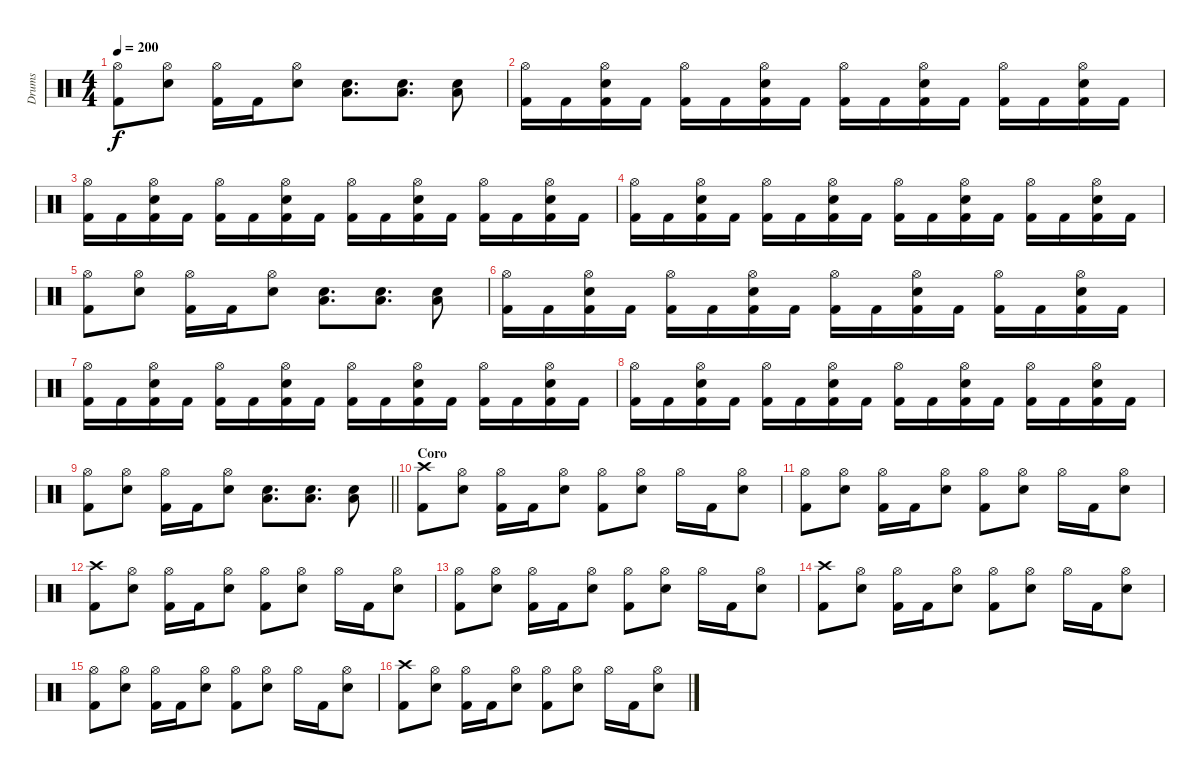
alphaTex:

\track ("Drums" "Drums") {instrument percussion}
\staff {score}
\articulation defaults
\ts (4 4)
\tempo 200
\clef neutral
\ks c
("Hi-Hat (open)" "Kick (hit) 2").8{dy f} ("Hi-Hat (open)" "Electric Snare (hit)").8 ("Hi-Hat (open)" "Kick (hit) 2").16 "Kick (hit) 2".16 ("Hi-Hat (open)" "Electric Snare (hit)").8 ("Low Tom (hit)" "Electric Snare (hit)").8{d} ("Low Tom (hit)" "Electric Snare (hit)").8{d} ("Low Tom (hit)" "Electric Snare (hit)").8 |
("Hi-Hat (open)" "Kick (hit) 2").16 "Kick (hit) 2".16 ("Hi-Hat (open)" "Electric Snare (hit)" "Kick (hit) 2").16 "Kick (hit) 2".16 ("Hi-Hat (open)" "Kick (hit) 2").16 "Kick (hit) 2".16 ("Hi-Hat (open)" "Electric Snare (hit)" "Kick (hit) 2").16 "Kick (hit) 2".16 ("Hi-Hat (open)" "Kick (hit) 2").16 "Kick (hit) 2".16 ("Hi-Hat (open)" "Electric Snare (hit)" "Kick (hit) 2").16 "Kick (hit) 2".16 ("Hi-Hat (open)" "Kick (hit) 2").16 "Kick (hit) 2".16 ("Hi-Hat (open)" "Electric Snare (hit)" "Kick (hit) 2").16 "Kick (hit) 2".16 |
("Hi-Hat (open)" "Kick (hit) 2").16 "Kick (hit) 2".16 ("Hi-Hat (open)" "Electric Snare (hit)" "Kick (hit) 2").16 "Kick (hit) 2".16 ("Hi-Hat (open)" "Kick (hit) 2").16 "Kick (hit) 2".16 ("Hi-Hat (open)" "Electric Snare (hit)" "Kick (hit) 2").16 "Kick (hit) 2".16 ("Hi-Hat (open)" "Kick (hit) 2").16 "Kick (hit) 2".16 ("Hi-Hat (open)" "Electric Snare (hit)" "Kick (hit) 2").16 "Kick (hit) 2".16 ("Hi-Hat (open)" "Kick (hit) 2").16 "Kick (hit) 2".16 ("Hi-Hat (open)" "Electric Snare (hit)" "Kick (hit) 2").16 "Kick (hit) 2".16 |
("Hi-Hat (open)" "Kick (hit) 2").16 "Kick (hit) 2".16 ("Hi-Hat (open)" "Electric Snare (hit)" "Kick (hit) 2").16 "Kick (hit) 2".16 ("Hi-Hat (open)" "Kick (hit) 2").16 "Kick (hit) 2".16 ("Hi-Hat (open)" "Electric Snare (hit)" "Kick (hit) 2").16 "Kick (hit) 2".16 ("Hi-Hat (open)" "Kick (hit) 2").16 "Kick (hit) 2".16 ("Hi-Hat (open)" "Electric Snare (hit)" "Kick (hit) 2").16 "Kick (hit) 2".16 ("Hi-Hat (open)" "Kick (hit) 2").16 "Kick (hit) 2".16 ("Hi-Hat (open)" "Electric Snare (hit)" "Kick (hit) 2").16 "Kick (hit) 2".16 |
("Hi-Hat (open)" "Kick (hit) 2").8 ("Hi-Hat (open)" "Electric Snare (hit)").8 ("Hi-Hat (open)" "Kick (hit) 2").16 "Kick (hit) 2".16 ("Hi-Hat (open)" "Electric Snare (hit)").8 ("Low Tom (hit)" "Electric Snare (hit)").8{d} ("Low Tom (hit)" "Electric Snare (hit)").8{d} ("Low Tom (hit)" "Electric Snare (hit)").8 |
("Hi-Hat (open)" "Kick (hit) 2").16 "Kick (hit) 2".16 ("Hi-Hat (open)" "Electric Snare (hit)" "Kick (hit) 2").16 "Kick (hit) 2".16 ("Hi-Hat (open)" "Kick (hit) 2").16 "Kick (hit) 2".16 ("Hi-Hat (open)" "Electric Snare (hit)" "Kick (hit) 2").16 "Kick (hit) 2".16 ("Hi-Hat (open)" "Kick (hit) 2").16 "Kick (hit) 2".16 ("Hi-Hat (open)" "Electric Snare (hit)" "Kick (hit) 2").16 "Kick (hit) 2".16 ("Hi-Hat (open)" "Kick (hit) 2").16 "Kick (hit) 2".16 ("Hi-Hat (open)" "Electric Snare (hit)" "Kick (hit) 2").16 "Kick (hit) 2".16 |
("Hi-Hat (open)" "Kick (hit) 2").16 "Kick (hit) 2".16 ("Hi-Hat (open)" "Electric Snare (hit)" "Kick (hit) 2").16 "Kick (hit) 2".16 ("Hi-Hat (open)" "Kick (hit) 2").16 "Kick (hit) 2".16 ("Hi-Hat (open)" "Electric Snare (hit)" "Kick (hit) 2").16 "Kick (hit) 2".16 ("Hi-Hat (open)" "Kick (hit) 2").16 "Kick (hit) 2".16 ("Hi-Hat (open)" "Electric Snare (hit)" "Kick (hit) 2").16 "Kick (hit) 2".16 ("Hi-Hat (open)" "Kick (hit) 2").16 "Kick (hit) 2".16 ("Hi-Hat (open)" "Electric Snare (hit)" "Kick (hit) 2").16 "Kick (hit) 2".16 |
("Hi-Hat (open)" "Kick (hit) 2").16 "Kick (hit) 2".16 ("Hi-Hat (open)" "Electric Snare (hit)" "Kick (hit) 2").16 "Kick (hit) 2".16 ("Hi-Hat (open)" "Kick (hit) 2").16 "Kick (hit) 2".16 ("Hi-Hat (open)" "Electric Snare (hit)" "Kick (hit) 2").16 "Kick (hit) 2".16 ("Hi-Hat (open)" "Kick (hit) 2").16 "Kick (hit) 2".16 ("Hi-Hat (open)" "Electric Snare (hit)" "Kick (hit) 2").16 "Kick (hit) 2".16 ("Hi-Hat (open)" "Kick (hit) 2").16 "Kick (hit) 2".16 ("Hi-Hat (open)" "Electric Snare (hit)" "Kick (hit) 2").16 "Kick (hit) 2".16 |
\barLineRight lightlight
("Hi-Hat (open)" "Kick (hit) 2").8 ("Hi-Hat (open)" "Electric Snare (hit)").8 ("Hi-Hat (open)" "Kick (hit) 2").16 "Kick (hit) 2".16 ("Hi-Hat (open)" "Electric Snare (hit)").8 ("Low Tom (hit)" "Electric Snare (hit)").8{d} ("Low Tom (hit)" "Electric Snare (hit)").8{d} ("Low Tom (hit)" "Electric Snare (hit)").8 |
\section ("" "Coro")
("Crash high (hit)" "Kick (hit) 2").8 ("Hi-Hat (open)" "Electric Snare (hit)").8 ("Hi-Hat (open)" "Kick (hit) 2").16 "Kick (hit) 2".16 ("Hi-Hat (open)" "Electric Snare (hit)").8 ("Hi-Hat (open)" "Kick (hit) 2").8 ("Hi-Hat (open)" "Electric Snare (hit)").8 "Hi-Hat (open)".16 "Kick (hit) 2".16 ("Hi-Hat (open)" "Electric Snare (hit)").8 |
("Hi-Hat (open)" "Kick (hit) 2").8 ("Hi-Hat (open)" "Electric Snare (hit)").8 ("Hi-Hat (open)" "Kick (hit) 2").16 "Kick (hit) 2".16 ("Hi-Hat (open)" "Electric Snare (hit)").8 ("Hi-Hat (open)" "Kick (hit) 2").8 ("Hi-Hat (open)" "Electric Snare (hit)").8 "Hi-Hat (open)".16 "Kick (hit) 2".16 ("Hi-Hat (open)" "Electric Snare (hit)").8 |
("Crash high (hit)" "Kick (hit) 2").8 ("Hi-Hat (open)" "Electric Snare (hit)").8 ("Hi-Hat (open)" "Kick (hit) 2").16 "Kick (hit) 2".16 ("Hi-Hat (open)" "Electric Snare (hit)").8 ("Hi-Hat (open)" "Kick (hit) 2").8 ("Hi-Hat (open)" "Electric Snare (hit)").8 "Hi-Hat (open)".16 "Kick (hit) 2".16 ("Hi-Hat (open)" "Electric Snare (hit)").8 |
("Hi-Hat (open)" "Kick (hit) 2").8 ("Hi-Hat (open)" "Electric Snare (hit)").8 ("Hi-Hat (open)" "Kick (hit) 2").16 "Kick (hit) 2".16 ("Hi-Hat (open)" "Electric Snare (hit)").8 ("Hi-Hat (open)" "Kick (hit) 2").8 ("Hi-Hat (open)" "Electric Snare (hit)").8 "Hi-Hat (open)".16 "Kick (hit) 2".16 ("Hi-Hat (open)" "Electric Snare (hit)").8 |
("Crash high (hit)" "Kick (hit) 2").8 ("Hi-Hat (open)" "Electric Snare (hit)").8 ("Hi-Hat (open)" "Kick (hit) 2").16 "Kick (hit) 2".16 ("Hi-Hat (open)" "Electric Snare (hit)").8 ("Hi-Hat (open)" "Kick (hit) 2").8 ("Hi-Hat (open)" "Electric Snare (hit)").8 "Hi-Hat (open)".16 "Kick (hit) 2".16 ("Hi-Hat (open)" "Electric Snare (hit)").8 |
("Hi-Hat (open)" "Kick (hit) 2").8 ("Hi-Hat (open)" "Electric Snare (hit)").8 ("Hi-Hat (open)" "Kick (hit) 2").16 "Kick (hit) 2".16 ("Hi-Hat (open)" "Electric Snare (hit)").8 ("Hi-Hat (open)" "Kick (hit) 2").8 ("Hi-Hat (open)" "Electric Snare (hit)").8 "Hi-Hat (open)".16 "Kick (hit) 2".16 ("Hi-Hat (open)" "Electric Snare (hit)").8 |
("Crash high (hit)" "Kick (hit) 2").8 ("Hi-Hat (open)" "Electric Snare (hit)").8 ("Hi-Hat (open)" "Kick (hit) 2").16 "Kick (hit) 2".16 ("Hi-Hat (open)" "Electric Snare (hit)").8 ("Hi-Hat (open)" "Kick (hit) 2").8 ("Hi-Hat (open)" "Electric Snare (hit)").8 "Hi-Hat (open)".16 "Kick (hit) 2".16 ("Hi-Hat (open)" "Electric Snare (hit)").8
